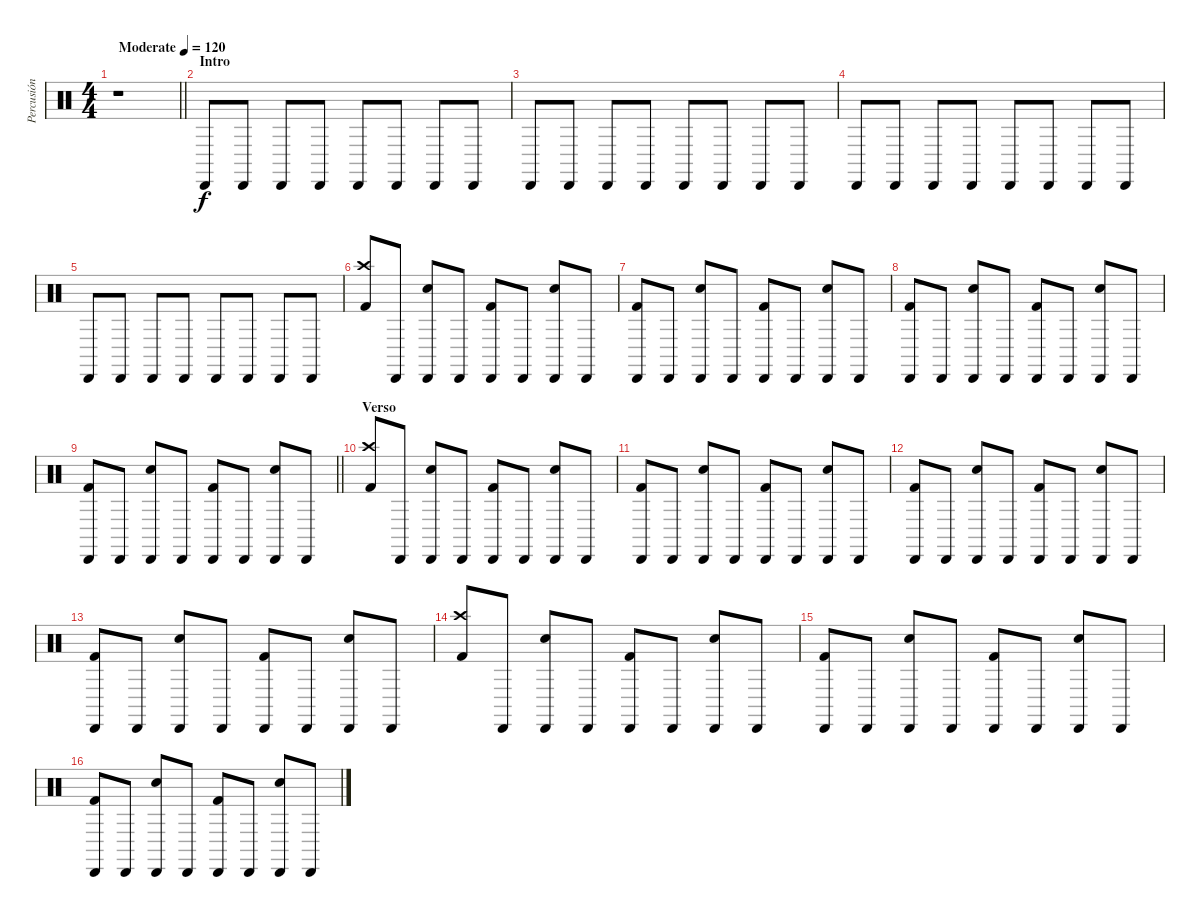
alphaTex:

\track ("Percusión" "Percusión") {instrument percussion}
\staff {score}
\articulation defaults
\ts (4 4)
\tempo (120 "Moderate")
\clef neutral
\barLineRight lightlight
\ks c
r.1{dy f} |
\section ("" "Intro")
"Cabasa (hit)".8{volume 10} "Cabasa (hit)".8 "Cabasa (hit)".8 "Cabasa (hit)".8 "Cabasa (hit)".8 "Cabasa (hit)".8 "Cabasa (hit)".8 "Cabasa (hit)".8 |
"Cabasa (hit)".8 "Cabasa (hit)".8 "Cabasa (hit)".8 "Cabasa (hit)".8 "Cabasa (hit)".8 "Cabasa (hit)".8 "Cabasa (hit)".8 "Cabasa (hit)".8 |
"Cabasa (hit)".8 "Cabasa (hit)".8 "Cabasa (hit)".8 "Cabasa (hit)".8 "Cabasa (hit)".8 "Cabasa (hit)".8 "Cabasa (hit)".8 "Cabasa (hit)".8 |
"Cabasa (hit)".8 "Cabasa (hit)".8 "Cabasa (hit)".8 "Cabasa (hit)".8 "Cabasa (hit)".8 "Cabasa (hit)".8 "Cabasa (hit)".8 "Cabasa (hit)".8 |
("Crash high (hit)" "Kick (hit) 2").8 "Cabasa (hit)".8 ("Cabasa (hit)" "Snare (hit) 2").8 "Cabasa (hit)".8 ("Cabasa (hit)" "Kick (hit) 2").8 "Cabasa (hit)".8 ("Cabasa (hit)" "Snare (hit) 2").8 "Cabasa (hit)".8 |
("Cabasa (hit)" "Kick (hit) 2").8 "Cabasa (hit)".8 ("Cabasa (hit)" "Snare (hit) 2").8 "Cabasa (hit)".8 ("Cabasa (hit)" "Kick (hit) 2").8 "Cabasa (hit)".8 ("Cabasa (hit)" "Snare (hit) 2").8 "Cabasa (hit)".8 |
("Cabasa (hit)" "Kick (hit) 2").8 "Cabasa (hit)".8 ("Cabasa (hit)" "Snare (hit) 2").8 "Cabasa (hit)".8 ("Cabasa (hit)" "Kick (hit) 2").8 "Cabasa (hit)".8 ("Cabasa (hit)" "Snare (hit) 2").8 "Cabasa (hit)".8 |
\barLineRight lightlight
("Cabasa (hit)" "Kick (hit) 2").8 "Cabasa (hit)".8 ("Cabasa (hit)" "Snare (hit) 2").8 "Cabasa (hit)".8 ("Cabasa (hit)" "Kick (hit) 2").8 "Cabasa (hit)".8 ("Cabasa (hit)" "Snare (hit) 2").8 "Cabasa (hit)".8 |
\section ("" "Verso")
("Crash high (hit)" "Kick (hit) 2").8 "Cabasa (hit)".8 ("Cabasa (hit)" "Snare (hit) 2").8 "Cabasa (hit)".8 ("Cabasa (hit)" "Kick (hit) 2").8 "Cabasa (hit)".8 ("Cabasa (hit)" "Snare (hit) 2").8 "Cabasa (hit)".8 |
("Cabasa (hit)" "Kick (hit) 2").8 "Cabasa (hit)".8 ("Cabasa (hit)" "Snare (hit) 2").8 "Cabasa (hit)".8 ("Cabasa (hit)" "Kick (hit) 2").8 "Cabasa (hit)".8 ("Cabasa (hit)" "Snare (hit) 2").8 "Cabasa (hit)".8 |
("Cabasa (hit)" "Kick (hit) 2").8 "Cabasa (hit)".8 ("Cabasa (hit)" "Snare (hit) 2").8 "Cabasa (hit)".8 ("Cabasa (hit)" "Kick (hit) 2").8 "Cabasa (hit)".8 ("Cabasa (hit)" "Snare (hit) 2").8 "Cabasa (hit)".8 |
("Cabasa (hit)" "Kick (hit) 2").8 "Cabasa (hit)".8 ("Cabasa (hit)" "Snare (hit) 2").8 "Cabasa (hit)".8 ("Cabasa (hit)" "Kick (hit) 2").8 "Cabasa (hit)".8 ("Cabasa (hit)" "Snare (hit) 2").8 "Cabasa (hit)".8 |
("Crash high (hit)" "Kick (hit) 2").8 "Cabasa (hit)".8 ("Cabasa (hit)" "Snare (hit) 2").8 "Cabasa (hit)".8 ("Cabasa (hit)" "Kick (hit) 2").8 "Cabasa (hit)".8 ("Cabasa (hit)" "Snare (hit) 2").8 "Cabasa (hit)".8 |
("Cabasa (hit)" "Kick (hit) 2").8 "Cabasa (hit)".8 ("Cabasa (hit)" "Snare (hit) 2").8 "Cabasa (hit)".8 ("Cabasa (hit)" "Kick (hit) 2").8 "Cabasa (hit)".8 ("Cabasa (hit)" "Snare (hit) 2").8 "Cabasa (hit)".8 |
("Cabasa (hit)" "Kick (hit) 2").8 "Cabasa (hit)".8 ("Cabasa (hit)" "Snare (hit) 2").8 "Cabasa (hit)".8 ("Cabasa (hit)" "Kick (hit) 2").8 "Cabasa (hit)".8 ("Cabasa (hit)" "Snare (hit) 2").8 "Cabasa (hit)".8
